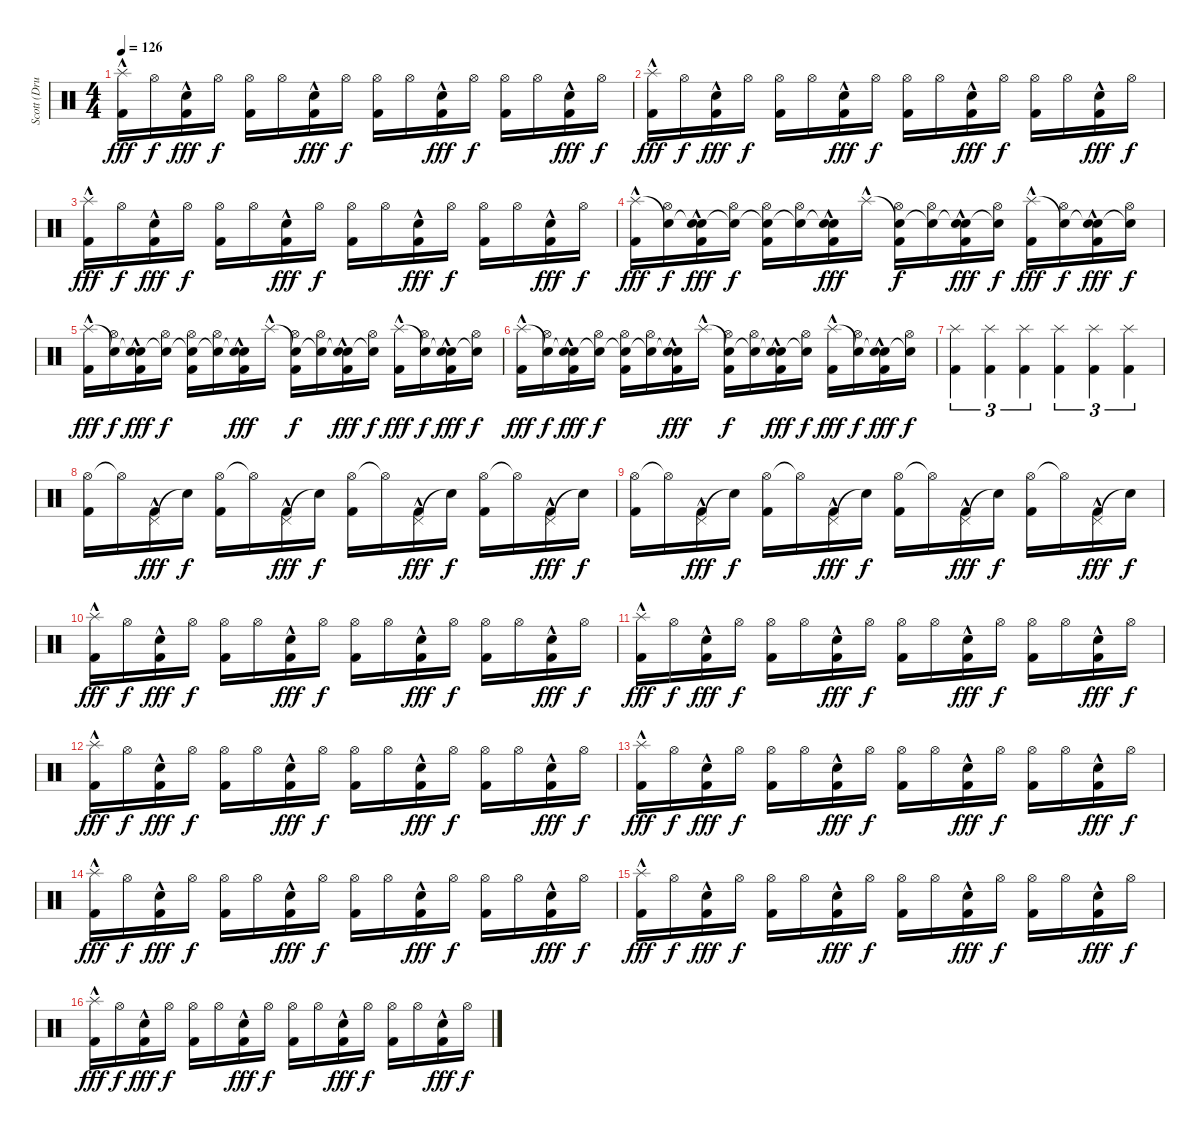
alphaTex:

\track ("Scott (Drums)" "Scott (Dru") {instrument percussion}
\staff {score}
\articulation defaults
\ts (4 4)
\tempo 126
\clef neutral
\ks c
("Splash (hit)"{hac} "Kick (hit) 2").16{dy fff} "Hi-Hat (open)".16{dy f} ("Electric Snare (hit)"{hac} "Kick (hit) 2").16{dy fff} "Hi-Hat (open)".16{dy f} ("Hi-Hat (open)" "Kick (hit) 2").16 "Hi-Hat (open)".16 ("Electric Snare (hit)"{hac} "Kick (hit) 2").16{dy fff} "Hi-Hat (open)".16{dy f} ("Hi-Hat (open)" "Kick (hit) 2").16 "Hi-Hat (open)".16 ("Electric Snare (hit)"{hac} "Kick (hit) 2").16{dy fff} "Hi-Hat (open)".16{dy f} ("Hi-Hat (open)" "Kick (hit) 2").16 "Hi-Hat (open)".16 ("Electric Snare (hit)"{hac} "Kick (hit) 2").16{dy fff} "Hi-Hat (open)".16{dy f} |
("Splash (hit)"{hac} "Kick (hit) 2").16{dy fff} "Hi-Hat (open)".16{dy f} ("Electric Snare (hit)"{hac} "Kick (hit) 2").16{dy fff} "Hi-Hat (open)".16{dy f} ("Hi-Hat (open)" "Kick (hit) 2").16 "Hi-Hat (open)".16 ("Electric Snare (hit)"{hac} "Kick (hit) 2").16{dy fff} "Hi-Hat (open)".16{dy f} ("Hi-Hat (open)" "Kick (hit) 2").16 "Hi-Hat (open)".16 ("Electric Snare (hit)"{hac} "Kick (hit) 2").16{dy fff} "Hi-Hat (open)".16{dy f} ("Hi-Hat (open)" "Kick (hit) 2").16 "Hi-Hat (open)".16 ("Electric Snare (hit)"{hac} "Kick (hit) 2").16{dy fff} "Hi-Hat (open)".16{dy f} |
("Splash (hit)"{hac} "Kick (hit) 2").16{dy fff} "Hi-Hat (open)".16{dy f} ("Electric Snare (hit)"{hac} "Kick (hit) 2").16{dy fff} "Hi-Hat (open)".16{dy f} ("Hi-Hat (open)" "Kick (hit) 2").16 "Hi-Hat (open)".16 ("Electric Snare (hit)"{hac} "Kick (hit) 2").16{dy fff} "Hi-Hat (open)".16{dy f} ("Hi-Hat (open)" "Kick (hit) 2").16 "Hi-Hat (open)".16 ("Electric Snare (hit)"{hac} "Kick (hit) 2").16{dy fff} "Hi-Hat (open)".16{dy f} ("Hi-Hat (open)" "Kick (hit) 2").16 "Hi-Hat (open)".16 ("Electric Snare (hit)"{hac} "Kick (hit) 2").16{dy fff} "Hi-Hat (open)".16{dy f} |
("Splash (hit)"{hac} "Kick (hit) 2").16{dy fff} ("Snare (hit)"{t} "Hi-Hat (open)").16{dy f} ("Snare (hit)"{t} "Electric Snare (hit)"{hac} "Kick (hit) 2").16{dy fff} ("Snare (hit)"{t} "Hi-Hat (open)").16{dy f} ("Snare (hit)"{t} "Hi-Hat (open)" "Kick (hit) 2").16 ("Snare (hit)"{t} "Hi-Hat (open)").16 ("Snare (hit)"{t} "Electric Snare (hit)"{hac} "Kick (hit) 2").16{dy fff} "Splash (hit)"{hac}.16 ("Snare (hit)"{t} "Hi-Hat (open)" "Kick (hit) 2").16{dy f} ("Snare (hit)"{t} "Hi-Hat (open)").16 ("Snare (hit)"{t} "Electric Snare (hit)"{hac} "Kick (hit) 2").16{dy fff} ("Snare (hit)"{t} "Hi-Hat (open)").16{dy f} ("Splash (hit)"{hac} "Kick (hit) 2").16{dy fff} ("Snare (hit)"{t} "Hi-Hat (open)").16{dy f} ("Snare (hit)"{t} "Electric Snare (hit)"{hac} "Kick (hit) 2").16{dy fff} ("Snare (hit)"{t} "Hi-Hat (open)").16{dy f} |
("Splash (hit)"{hac} "Kick (hit) 2").16{dy fff} ("Snare (hit)"{t} "Hi-Hat (open)").16{dy f} ("Snare (hit)"{t} "Electric Snare (hit)"{hac} "Kick (hit) 2").16{dy fff} ("Snare (hit)"{t} "Hi-Hat (open)").16{dy f} ("Snare (hit)"{t} "Hi-Hat (open)" "Kick (hit) 2").16 ("Snare (hit)"{t} "Hi-Hat (open)").16 ("Snare (hit)"{t} "Electric Snare (hit)"{hac} "Kick (hit) 2").16{dy fff} "Splash (hit)"{hac}.16 ("Snare (hit)"{t} "Hi-Hat (open)" "Kick (hit) 2").16{dy f} ("Snare (hit)"{t} "Hi-Hat (open)").16 ("Snare (hit)"{t} "Electric Snare (hit)"{hac} "Kick (hit) 2").16{dy fff} ("Snare (hit)"{t} "Hi-Hat (open)").16{dy f} ("Splash (hit)"{hac} "Kick (hit) 2").16{dy fff} ("Snare (hit)"{t} "Hi-Hat (open)").16{dy f} ("Snare (hit)"{t} "Electric Snare (hit)"{hac} "Kick (hit) 2").16{dy fff} ("Snare (hit)"{t} "Hi-Hat (open)").16{dy f} |
("Splash (hit)"{hac} "Kick (hit) 2").16{dy fff} ("Snare (hit)"{t} "Hi-Hat (open)").16{dy f} ("Snare (hit)"{t} "Electric Snare (hit)"{hac} "Kick (hit) 2").16{dy fff} ("Snare (hit)"{t} "Hi-Hat (open)").16{dy f} ("Snare (hit)"{t} "Hi-Hat (open)" "Kick (hit) 2").16 ("Snare (hit)"{t} "Hi-Hat (open)").16 ("Snare (hit)"{t} "Electric Snare (hit)"{hac} "Kick (hit) 2").16{dy fff} "Splash (hit)"{hac}.16 ("Snare (hit)"{t} "Hi-Hat (open)" "Kick (hit) 2").16{dy f} ("Snare (hit)"{t} "Hi-Hat (open)").16 ("Snare (hit)"{t} "Electric Snare (hit)"{hac} "Kick (hit) 2").16{dy fff} ("Snare (hit)"{t} "Hi-Hat (open)").16{dy f} ("Splash (hit)"{hac} "Kick (hit) 2").16{dy fff} ("Snare (hit)"{t} "Hi-Hat (open)").16{dy f} ("Snare (hit)"{t} "Electric Snare (hit)"{hac} "Kick (hit) 2").16{dy fff} ("Snare (hit)"{t} "Hi-Hat (open)").16{dy f} |
("Splash (hit)" "Kick (hit) 2").4{tu (3 2)} ("Splash (hit)" "Kick (hit) 2").4{tu (3 2)} ("Splash (hit)" "Kick (hit) 2").4{tu (3 2)} ("Splash (hit)" "Kick (hit) 2").4{tu (3 2)} ("Splash (hit)" "Kick (hit) 2").4{tu (3 2)} ("Splash (hit)" "Kick (hit) 2").4{tu (3 2)} |
("Hi-Hat (open)" "Kick (hit) 2").16 "Hi-Hat (open)"{t}.16 ("Pedal Hi-Hat (hit)"{hac} "Kick (hit) 2").16{dy fff} "Snare (hit)"{t}.16{dy f} ("Hi-Hat (open)" "Kick (hit) 2").16 "Hi-Hat (open)"{t}.16 ("Pedal Hi-Hat (hit)"{hac} "Kick (hit) 2").16{dy fff} "Snare (hit)"{t}.16{dy f} ("Hi-Hat (open)" "Kick (hit) 2").16 "Hi-Hat (open)"{t}.16 ("Pedal Hi-Hat (hit)"{hac} "Kick (hit) 2").16{dy fff} "Snare (hit)"{t}.16{dy f} ("Hi-Hat (open)" "Kick (hit) 2").16 "Hi-Hat (open)"{t}.16 ("Pedal Hi-Hat (hit)"{hac} "Kick (hit) 2").16{dy fff} "Snare (hit)"{t}.16{dy f} |
("Hi-Hat (open)" "Kick (hit) 2").16 "Hi-Hat (open)"{t}.16 ("Pedal Hi-Hat (hit)"{hac} "Kick (hit) 2").16{dy fff} "Snare (hit)"{t}.16{dy f} ("Hi-Hat (open)" "Kick (hit) 2").16 "Hi-Hat (open)"{t}.16 ("Pedal Hi-Hat (hit)"{hac} "Kick (hit) 2").16{dy fff} "Snare (hit)"{t}.16{dy f} ("Hi-Hat (open)" "Kick (hit) 2").16 "Hi-Hat (open)"{t}.16 ("Pedal Hi-Hat (hit)"{hac} "Kick (hit) 2").16{dy fff} "Snare (hit)"{t}.16{dy f} ("Hi-Hat (open)" "Kick (hit) 2").16 "Hi-Hat (open)"{t}.16 ("Pedal Hi-Hat (hit)"{hac} "Kick (hit) 2").16{dy fff} "Snare (hit)"{t}.16{dy f} |
("Splash (hit)"{hac} "Kick (hit) 2").16{dy fff} "Hi-Hat (open)".16{dy f} ("Electric Snare (hit)"{hac} "Kick (hit) 2").16{dy fff} "Hi-Hat (open)".16{dy f} ("Hi-Hat (open)" "Kick (hit) 2").16 "Hi-Hat (open)".16 ("Electric Snare (hit)"{hac} "Kick (hit) 2").16{dy fff} "Hi-Hat (open)".16{dy f} ("Hi-Hat (open)" "Kick (hit) 2").16 "Hi-Hat (open)".16 ("Electric Snare (hit)"{hac} "Kick (hit) 2").16{dy fff} "Hi-Hat (open)".16{dy f} ("Hi-Hat (open)" "Kick (hit) 2").16 "Hi-Hat (open)".16 ("Electric Snare (hit)"{hac} "Kick (hit) 2").16{dy fff} "Hi-Hat (open)".16{dy f} |
("Splash (hit)"{hac} "Kick (hit) 2").16{dy fff} "Hi-Hat (open)".16{dy f} ("Electric Snare (hit)"{hac} "Kick (hit) 2").16{dy fff} "Hi-Hat (open)".16{dy f} ("Hi-Hat (open)" "Kick (hit) 2").16 "Hi-Hat (open)".16 ("Electric Snare (hit)"{hac} "Kick (hit) 2").16{dy fff} "Hi-Hat (open)".16{dy f} ("Hi-Hat (open)" "Kick (hit) 2").16 "Hi-Hat (open)".16 ("Electric Snare (hit)"{hac} "Kick (hit) 2").16{dy fff} "Hi-Hat (open)".16{dy f} ("Hi-Hat (open)" "Kick (hit) 2").16 "Hi-Hat (open)".16 ("Electric Snare (hit)"{hac} "Kick (hit) 2").16{dy fff} "Hi-Hat (open)".16{dy f} |
("Splash (hit)"{hac} "Kick (hit) 2").16{dy fff} "Hi-Hat (open)".16{dy f} ("Electric Snare (hit)"{hac} "Kick (hit) 2").16{dy fff} "Hi-Hat (open)".16{dy f} ("Hi-Hat (open)" "Kick (hit) 2").16 "Hi-Hat (open)".16 ("Electric Snare (hit)"{hac} "Kick (hit) 2").16{dy fff} "Hi-Hat (open)".16{dy f} ("Hi-Hat (open)" "Kick (hit) 2").16 "Hi-Hat (open)".16 ("Electric Snare (hit)"{hac} "Kick (hit) 2").16{dy fff} "Hi-Hat (open)".16{dy f} ("Hi-Hat (open)" "Kick (hit) 2").16 "Hi-Hat (open)".16 ("Electric Snare (hit)"{hac} "Kick (hit) 2").16{dy fff} "Hi-Hat (open)".16{dy f} |
("Splash (hit)"{hac} "Kick (hit) 2").16{dy fff} "Hi-Hat (open)".16{dy f} ("Electric Snare (hit)"{hac} "Kick (hit) 2").16{dy fff} "Hi-Hat (open)".16{dy f} ("Hi-Hat (open)" "Kick (hit) 2").16 "Hi-Hat (open)".16 ("Electric Snare (hit)"{hac} "Kick (hit) 2").16{dy fff} "Hi-Hat (open)".16{dy f} ("Hi-Hat (open)" "Kick (hit) 2").16 "Hi-Hat (open)".16 ("Electric Snare (hit)"{hac} "Kick (hit) 2").16{dy fff} "Hi-Hat (open)".16{dy f} ("Hi-Hat (open)" "Kick (hit) 2").16 "Hi-Hat (open)".16 ("Electric Snare (hit)"{hac} "Kick (hit) 2").16{dy fff} "Hi-Hat (open)".16{dy f} |
("Splash (hit)"{hac} "Kick (hit) 2").16{dy fff} "Hi-Hat (open)".16{dy f} ("Electric Snare (hit)"{hac} "Kick (hit) 2").16{dy fff} "Hi-Hat (open)".16{dy f} ("Hi-Hat (open)" "Kick (hit) 2").16 "Hi-Hat (open)".16 ("Electric Snare (hit)"{hac} "Kick (hit) 2").16{dy fff} "Hi-Hat (open)".16{dy f} ("Hi-Hat (open)" "Kick (hit) 2").16 "Hi-Hat (open)".16 ("Electric Snare (hit)"{hac} "Kick (hit) 2").16{dy fff} "Hi-Hat (open)".16{dy f} ("Hi-Hat (open)" "Kick (hit) 2").16 "Hi-Hat (open)".16 ("Electric Snare (hit)"{hac} "Kick (hit) 2").16{dy fff} "Hi-Hat (open)".16{dy f} |
("Splash (hit)"{hac} "Kick (hit) 2").16{dy fff} "Hi-Hat (open)".16{dy f} ("Electric Snare (hit)"{hac} "Kick (hit) 2").16{dy fff} "Hi-Hat (open)".16{dy f} ("Hi-Hat (open)" "Kick (hit) 2").16 "Hi-Hat (open)".16 ("Electric Snare (hit)"{hac} "Kick (hit) 2").16{dy fff} "Hi-Hat (open)".16{dy f} ("Hi-Hat (open)" "Kick (hit) 2").16 "Hi-Hat (open)".16 ("Electric Snare (hit)"{hac} "Kick (hit) 2").16{dy fff} "Hi-Hat (open)".16{dy f} ("Hi-Hat (open)" "Kick (hit) 2").16 "Hi-Hat (open)".16 ("Electric Snare (hit)"{hac} "Kick (hit) 2").16{dy fff} "Hi-Hat (open)".16{dy f} |
("Splash (hit)"{hac} "Kick (hit) 2").16{dy fff} "Hi-Hat (open)".16{dy f} ("Electric Snare (hit)"{hac} "Kick (hit) 2").16{dy fff} "Hi-Hat (open)".16{dy f} ("Hi-Hat (open)" "Kick (hit) 2").16 "Hi-Hat (open)".16 ("Electric Snare (hit)"{hac} "Kick (hit) 2").16{dy fff} "Hi-Hat (open)".16{dy f} ("Hi-Hat (open)" "Kick (hit) 2").16 "Hi-Hat (open)".16 ("Electric Snare (hit)"{hac} "Kick (hit) 2").16{dy fff} "Hi-Hat (open)".16{dy f} ("Hi-Hat (open)" "Kick (hit) 2").16 "Hi-Hat (open)".16 ("Electric Snare (hit)"{hac} "Kick (hit) 2").16{dy fff} "Hi-Hat (open)".16{dy f}
